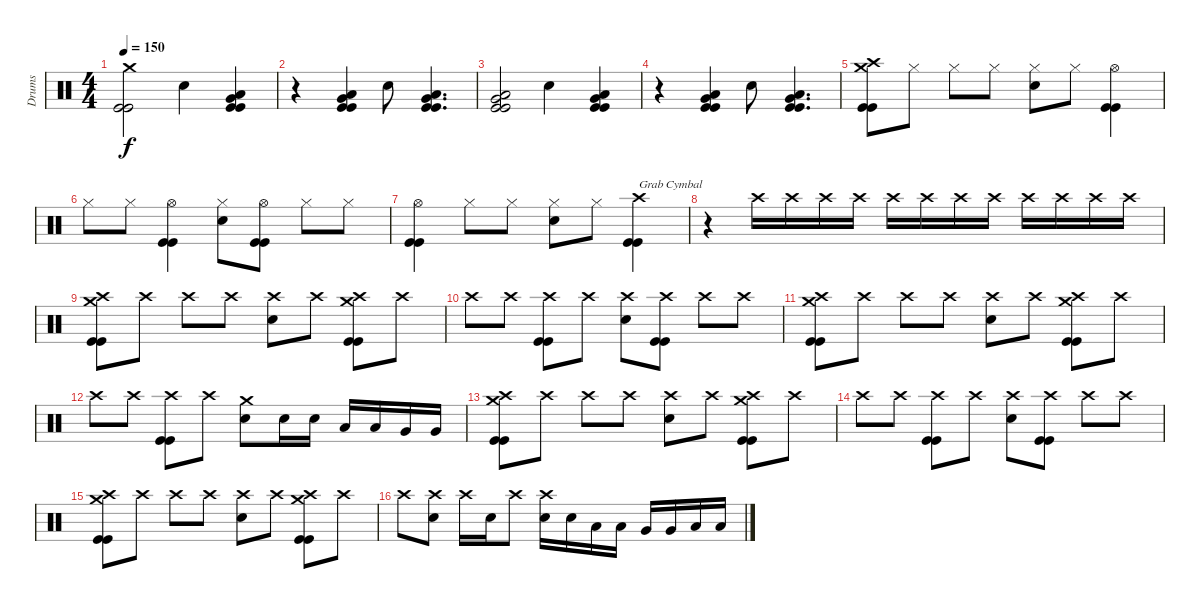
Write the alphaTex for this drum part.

\track ("Drums" "Drums") {instrument percussion}
\staff {score}
\articulation defaults
\ts (4 4)
\tempo 150
\clef neutral
\ks c
("Crash medium (hit)" "Kick (hit)" "Kick (hit)").2{dy f} "Electric Snare (hit)".4 ("Low Tom (hit)" "Very Low Tom (hit)" "Kick (hit)" "Kick (hit)").4 |
r.4 ("Low Tom (hit)" "Very Low Tom (hit)" "Kick (hit)" "Kick (hit)").4 "Electric Snare (hit)".8 ("Very Low Tom (hit)" "Low Floor Tom (hit)" "Kick (hit)" "Kick (hit)").4{d} |
("Very Low Tom (hit)" "Low Floor Tom (hit)" "Kick (hit)" "Kick (hit)").2 "Electric Snare (hit)".4 ("Low Tom (hit)" "Very Low Tom (hit)" "Kick (hit)" "Kick (hit)").4 |
r.4 ("Low Tom (hit)" "Very Low Tom (hit)" "Kick (hit)" "Kick (hit)").4 "Electric Snare (hit)".8 ("Very Low Tom (hit)" "Low Floor Tom (hit)" "Kick (hit)" "Kick (hit)").4{d} |
("Crash high (hit)" "Crash medium (hit)" "Kick (hit)" "Kick (hit)").8 "Hi-Hat (closed)".8 "Hi-Hat (closed)".8 "Hi-Hat (closed)".8 ("Hi-Hat (closed)" "Electric Snare (hit)").8 "Hi-Hat (closed)".8 ("Hi-Hat (open)" "Kick (hit)" "Kick (hit)").4 |
"Hi-Hat (closed)".8 "Hi-Hat (closed)".8 ("Hi-Hat (open)" "Kick (hit)" "Kick (hit)").4 ("Hi-Hat (closed)" "Electric Snare (hit)").8 ("Hi-Hat (open)" "Kick (hit)" "Kick (hit)").8 "Hi-Hat (closed)".8 "Hi-Hat (closed)".8 |
("Hi-Hat (open)" "Kick (hit)" "Kick (hit)").4 "Hi-Hat (closed)".8 "Hi-Hat (closed)".8 ("Hi-Hat (closed)" "Electric Snare (hit)").8 "Hi-Hat (closed)".8 ("Crash high (hit)" "Kick (hit)" "Kick (hit)").4{txt "Grab Cymbal"} |
r.4{volume 5} "Crash high (hit)".16{volume 16} "Crash high (hit)".16 "Crash high (hit)".16 "Crash high (hit)".16 "Crash high (hit)".16 "Crash high (hit)".16 "Crash high (hit)".16 "Crash high (hit)".16 "Crash high (hit)".16 "Crash high (hit)".16 "Crash high (hit)".16 "Crash high (hit)".16 |
("Crash high (hit)" "Crash medium (hit)" "Kick (hit)" "Kick (hit)").8 "Crash high (hit)".8 "Crash high (hit)".8 "Crash high (hit)".8 ("Crash high (hit)" "Electric Snare (hit)").8 "Crash high (hit)".8 ("Crash high (hit)" "Crash medium (hit)" "Kick (hit)" "Kick (hit)").8 "Crash high (hit)".8 |
"Crash high (hit)".8 "Crash high (hit)".8 ("Crash high (hit)" "Kick (hit)" "Kick (hit)").8 "Crash high (hit)".8 ("Crash high (hit)" "Electric Snare (hit)").8 ("Crash high (hit)" "Kick (hit)" "Kick (hit)").8 "Crash high (hit)".8 "Crash high (hit)".8 |
("Crash high (hit)" "Crash medium (hit)" "Kick (hit)" "Kick (hit)").8 "Crash high (hit)".8 "Crash high (hit)".8 "Crash high (hit)".8 ("Crash high (hit)" "Electric Snare (hit)").8 "Crash high (hit)".8 ("Crash high (hit)" "Crash medium (hit)" "Kick (hit)" "Kick (hit)").8 "Crash high (hit)".8 |
"Crash high (hit)".8 "Crash high (hit)".8 ("Crash high (hit)" "Kick (hit)" "Kick (hit)").8 "Crash high (hit)".8 ("Crash medium (hit)" "Electric Snare (hit)").8 "Electric Snare (hit)".16 "Electric Snare (hit)".16 "Low Tom (hit)".16 "Low Tom (hit)".16 "Very Low Tom (hit)".16 "Very Low Tom (hit)".16 |
("Crash high (hit)" "Crash medium (hit)" "Kick (hit)" "Kick (hit)").8 "Crash high (hit)".8 "Crash high (hit)".8 "Crash high (hit)".8 ("Crash high (hit)" "Electric Snare (hit)").8 "Crash high (hit)".8 ("Crash high (hit)" "Crash medium (hit)" "Kick (hit)" "Kick (hit)").8 "Crash high (hit)".8 |
"Crash high (hit)".8 "Crash high (hit)".8 ("Crash high (hit)" "Kick (hit)" "Kick (hit)").8 "Crash high (hit)".8 ("Crash high (hit)" "Electric Snare (hit)").8 ("Crash high (hit)" "Kick (hit)" "Kick (hit)").8 "Crash high (hit)".8 "Crash high (hit)".8 |
("Crash high (hit)" "Crash medium (hit)" "Kick (hit)" "Kick (hit)").8 "Crash high (hit)".8 "Crash high (hit)".8 "Crash high (hit)".8 ("Crash high (hit)" "Electric Snare (hit)").8 "Crash high (hit)".8 ("Crash high (hit)" "Crash medium (hit)" "Kick (hit)" "Kick (hit)").8 "Crash high (hit)".8 |
"Crash high (hit)".8 ("Crash high (hit)" "Electric Snare (hit)").8 "Crash high (hit)".16 "Electric Snare (hit)".16 "Crash high (hit)".8 ("Crash high (hit)" "Electric Snare (hit)").16 "Electric Snare (hit)".16 "Low Tom (hit)".16 "Low Tom (hit)".16 "Very Low Tom (hit)".16 "Very Low Tom (hit)".16 "Low Floor Tom (hit)".16 "Low Floor Tom (hit)".16
